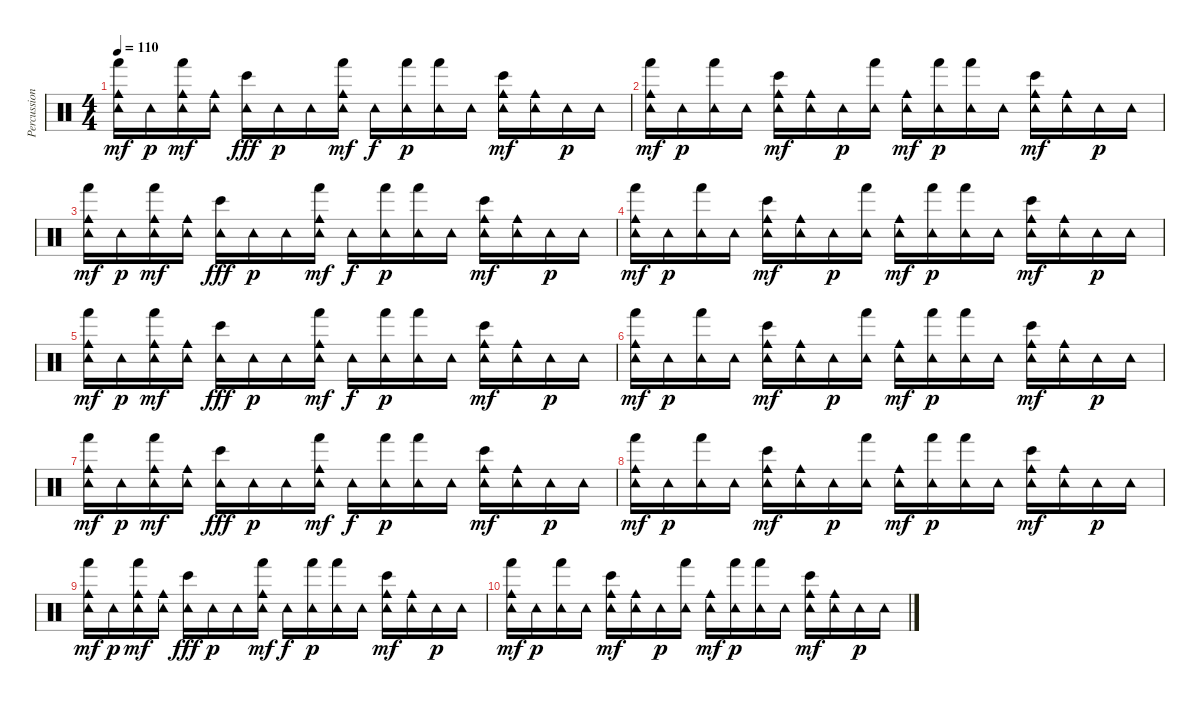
\track ("Percussions" "Percussion") {instrument percussion}
\staff {score}
\articulation defaults
\ts (4 4)
\tempo 110
\clef neutral
\ks c
("Hand (hit)" "Tambourine (hit)" "Cowbell medium (hit)").16{dy mf} "Tambourine (hit)".16{dy p} ("Hand (hit)" "Tambourine (hit)" "Cowbell medium (hit)").16{dy mf} ("Tambourine (hit)" "Cowbell medium (hit)").16 ("Bongo High (hit)" "Tambourine (hit)").16{dy fff} "Tambourine (hit)".16{dy p} "Tambourine (hit)".16 ("Hand (hit)" "Tambourine (hit)" "Cowbell medium (hit)").16{dy mf} "Tambourine (hit)".16{dy f} ("Hand (hit)" "Tambourine (hit)").16{dy p} ("Hand (hit)" "Tambourine (hit)").16 "Tambourine (hit)".16 ("Bongo High (hit)" "Tambourine (hit)" "Cowbell medium (hit)").16{dy mf} ("Tambourine (hit)" "Cowbell medium (hit)").16 "Tambourine (hit)".16{dy p} "Tambourine (hit)".16 |
("Hand (hit)" "Tambourine (hit)" "Cowbell medium (hit)").16{dy mf} "Tambourine (hit)".16{dy p} ("Hand (hit)" "Tambourine (hit)").16 "Tambourine (hit)".16 ("Bongo High (hit)" "Tambourine (hit)" "Cowbell medium (hit)").16{dy mf} ("Tambourine (hit)" "Cowbell medium (hit)").16 "Tambourine (hit)".16{dy p} ("Hand (hit)" "Tambourine (hit)").16 ("Tambourine (hit)" "Cowbell medium (hit)").16{dy mf} ("Hand (hit)" "Tambourine (hit)").16{dy p} ("Hand (hit)" "Tambourine (hit)").16 "Tambourine (hit)".16 ("Bongo High (hit)" "Tambourine (hit)" "Cowbell medium (hit)").16{dy mf} ("Tambourine (hit)" "Cowbell medium (hit)").16 "Tambourine (hit)".16{dy p} "Tambourine (hit)".16 |
("Hand (hit)" "Tambourine (hit)" "Cowbell medium (hit)").16{dy mf} "Tambourine (hit)".16{dy p} ("Hand (hit)" "Tambourine (hit)" "Cowbell medium (hit)").16{dy mf} ("Tambourine (hit)" "Cowbell medium (hit)").16 ("Bongo High (hit)" "Tambourine (hit)").16{dy fff} "Tambourine (hit)".16{dy p} "Tambourine (hit)".16 ("Hand (hit)" "Tambourine (hit)" "Cowbell medium (hit)").16{dy mf} "Tambourine (hit)".16{dy f} ("Hand (hit)" "Tambourine (hit)").16{dy p} ("Hand (hit)" "Tambourine (hit)").16 "Tambourine (hit)".16 ("Bongo High (hit)" "Tambourine (hit)" "Cowbell medium (hit)").16{dy mf} ("Tambourine (hit)" "Cowbell medium (hit)").16 "Tambourine (hit)".16{dy p} "Tambourine (hit)".16 |
("Hand (hit)" "Tambourine (hit)" "Cowbell medium (hit)").16{dy mf} "Tambourine (hit)".16{dy p} ("Hand (hit)" "Tambourine (hit)").16 "Tambourine (hit)".16 ("Bongo High (hit)" "Tambourine (hit)" "Cowbell medium (hit)").16{dy mf} ("Tambourine (hit)" "Cowbell medium (hit)").16 "Tambourine (hit)".16{dy p} ("Hand (hit)" "Tambourine (hit)").16 ("Tambourine (hit)" "Cowbell medium (hit)").16{dy mf} ("Hand (hit)" "Tambourine (hit)").16{dy p} ("Hand (hit)" "Tambourine (hit)").16 "Tambourine (hit)".16 ("Bongo High (hit)" "Tambourine (hit)" "Cowbell medium (hit)").16{dy mf} ("Tambourine (hit)" "Cowbell medium (hit)").16 "Tambourine (hit)".16{dy p} "Tambourine (hit)".16 |
("Hand (hit)" "Tambourine (hit)" "Cowbell medium (hit)").16{dy mf} "Tambourine (hit)".16{dy p} ("Hand (hit)" "Tambourine (hit)" "Cowbell medium (hit)").16{dy mf} ("Tambourine (hit)" "Cowbell medium (hit)").16 ("Bongo High (hit)" "Tambourine (hit)").16{dy fff} "Tambourine (hit)".16{dy p} "Tambourine (hit)".16 ("Hand (hit)" "Tambourine (hit)" "Cowbell medium (hit)").16{dy mf} "Tambourine (hit)".16{dy f} ("Hand (hit)" "Tambourine (hit)").16{dy p} ("Hand (hit)" "Tambourine (hit)").16 "Tambourine (hit)".16 ("Bongo High (hit)" "Tambourine (hit)" "Cowbell medium (hit)").16{dy mf} ("Tambourine (hit)" "Cowbell medium (hit)").16 "Tambourine (hit)".16{dy p} "Tambourine (hit)".16 |
("Hand (hit)" "Tambourine (hit)" "Cowbell medium (hit)").16{dy mf} "Tambourine (hit)".16{dy p} ("Hand (hit)" "Tambourine (hit)").16 "Tambourine (hit)".16 ("Bongo High (hit)" "Tambourine (hit)" "Cowbell medium (hit)").16{dy mf} ("Tambourine (hit)" "Cowbell medium (hit)").16 "Tambourine (hit)".16{dy p} ("Hand (hit)" "Tambourine (hit)").16 ("Tambourine (hit)" "Cowbell medium (hit)").16{dy mf} ("Hand (hit)" "Tambourine (hit)").16{dy p} ("Hand (hit)" "Tambourine (hit)").16 "Tambourine (hit)".16 ("Bongo High (hit)" "Tambourine (hit)" "Cowbell medium (hit)").16{dy mf} ("Tambourine (hit)" "Cowbell medium (hit)").16 "Tambourine (hit)".16{dy p} "Tambourine (hit)".16 |
("Hand (hit)" "Tambourine (hit)" "Cowbell medium (hit)").16{dy mf} "Tambourine (hit)".16{dy p} ("Hand (hit)" "Tambourine (hit)" "Cowbell medium (hit)").16{dy mf} ("Tambourine (hit)" "Cowbell medium (hit)").16 ("Bongo High (hit)" "Tambourine (hit)").16{dy fff} "Tambourine (hit)".16{dy p} "Tambourine (hit)".16 ("Hand (hit)" "Tambourine (hit)" "Cowbell medium (hit)").16{dy mf} "Tambourine (hit)".16{dy f} ("Hand (hit)" "Tambourine (hit)").16{dy p} ("Hand (hit)" "Tambourine (hit)").16 "Tambourine (hit)".16 ("Bongo High (hit)" "Tambourine (hit)" "Cowbell medium (hit)").16{dy mf} ("Tambourine (hit)" "Cowbell medium (hit)").16 "Tambourine (hit)".16{dy p} "Tambourine (hit)".16 |
("Hand (hit)" "Tambourine (hit)" "Cowbell medium (hit)").16{dy mf} "Tambourine (hit)".16{dy p} ("Hand (hit)" "Tambourine (hit)").16 "Tambourine (hit)".16 ("Bongo High (hit)" "Tambourine (hit)" "Cowbell medium (hit)").16{dy mf} ("Tambourine (hit)" "Cowbell medium (hit)").16 "Tambourine (hit)".16{dy p} ("Hand (hit)" "Tambourine (hit)").16 ("Tambourine (hit)" "Cowbell medium (hit)").16{dy mf} ("Hand (hit)" "Tambourine (hit)").16{dy p} ("Hand (hit)" "Tambourine (hit)").16 "Tambourine (hit)".16 ("Bongo High (hit)" "Tambourine (hit)" "Cowbell medium (hit)").16{dy mf} ("Tambourine (hit)" "Cowbell medium (hit)").16 "Tambourine (hit)".16{dy p} "Tambourine (hit)".16 |
("Hand (hit)" "Tambourine (hit)" "Cowbell medium (hit)").16{dy mf} "Tambourine (hit)".16{dy p} ("Hand (hit)" "Tambourine (hit)" "Cowbell medium (hit)").16{dy mf} ("Tambourine (hit)" "Cowbell medium (hit)").16 ("Bongo High (hit)" "Tambourine (hit)").16{dy fff} "Tambourine (hit)".16{dy p} "Tambourine (hit)".16 ("Hand (hit)" "Tambourine (hit)" "Cowbell medium (hit)").16{dy mf} "Tambourine (hit)".16{dy f} ("Hand (hit)" "Tambourine (hit)").16{dy p} ("Hand (hit)" "Tambourine (hit)").16 "Tambourine (hit)".16 ("Bongo High (hit)" "Tambourine (hit)" "Cowbell medium (hit)").16{dy mf} ("Tambourine (hit)" "Cowbell medium (hit)").16 "Tambourine (hit)".16{dy p} "Tambourine (hit)".16 |
("Hand (hit)" "Tambourine (hit)" "Cowbell medium (hit)").16{dy mf} "Tambourine (hit)".16{dy p} ("Hand (hit)" "Tambourine (hit)").16 "Tambourine (hit)".16 ("Bongo High (hit)" "Tambourine (hit)" "Cowbell medium (hit)").16{dy mf} ("Tambourine (hit)" "Cowbell medium (hit)").16 "Tambourine (hit)".16{dy p} ("Hand (hit)" "Tambourine (hit)").16 ("Tambourine (hit)" "Cowbell medium (hit)").16{dy mf} ("Hand (hit)" "Tambourine (hit)").16{dy p} ("Hand (hit)" "Tambourine (hit)").16 "Tambourine (hit)".16 ("Bongo High (hit)" "Tambourine (hit)" "Cowbell medium (hit)").16{dy mf} ("Tambourine (hit)" "Cowbell medium (hit)").16 "Tambourine (hit)".16{dy p} "Tambourine (hit)".16
